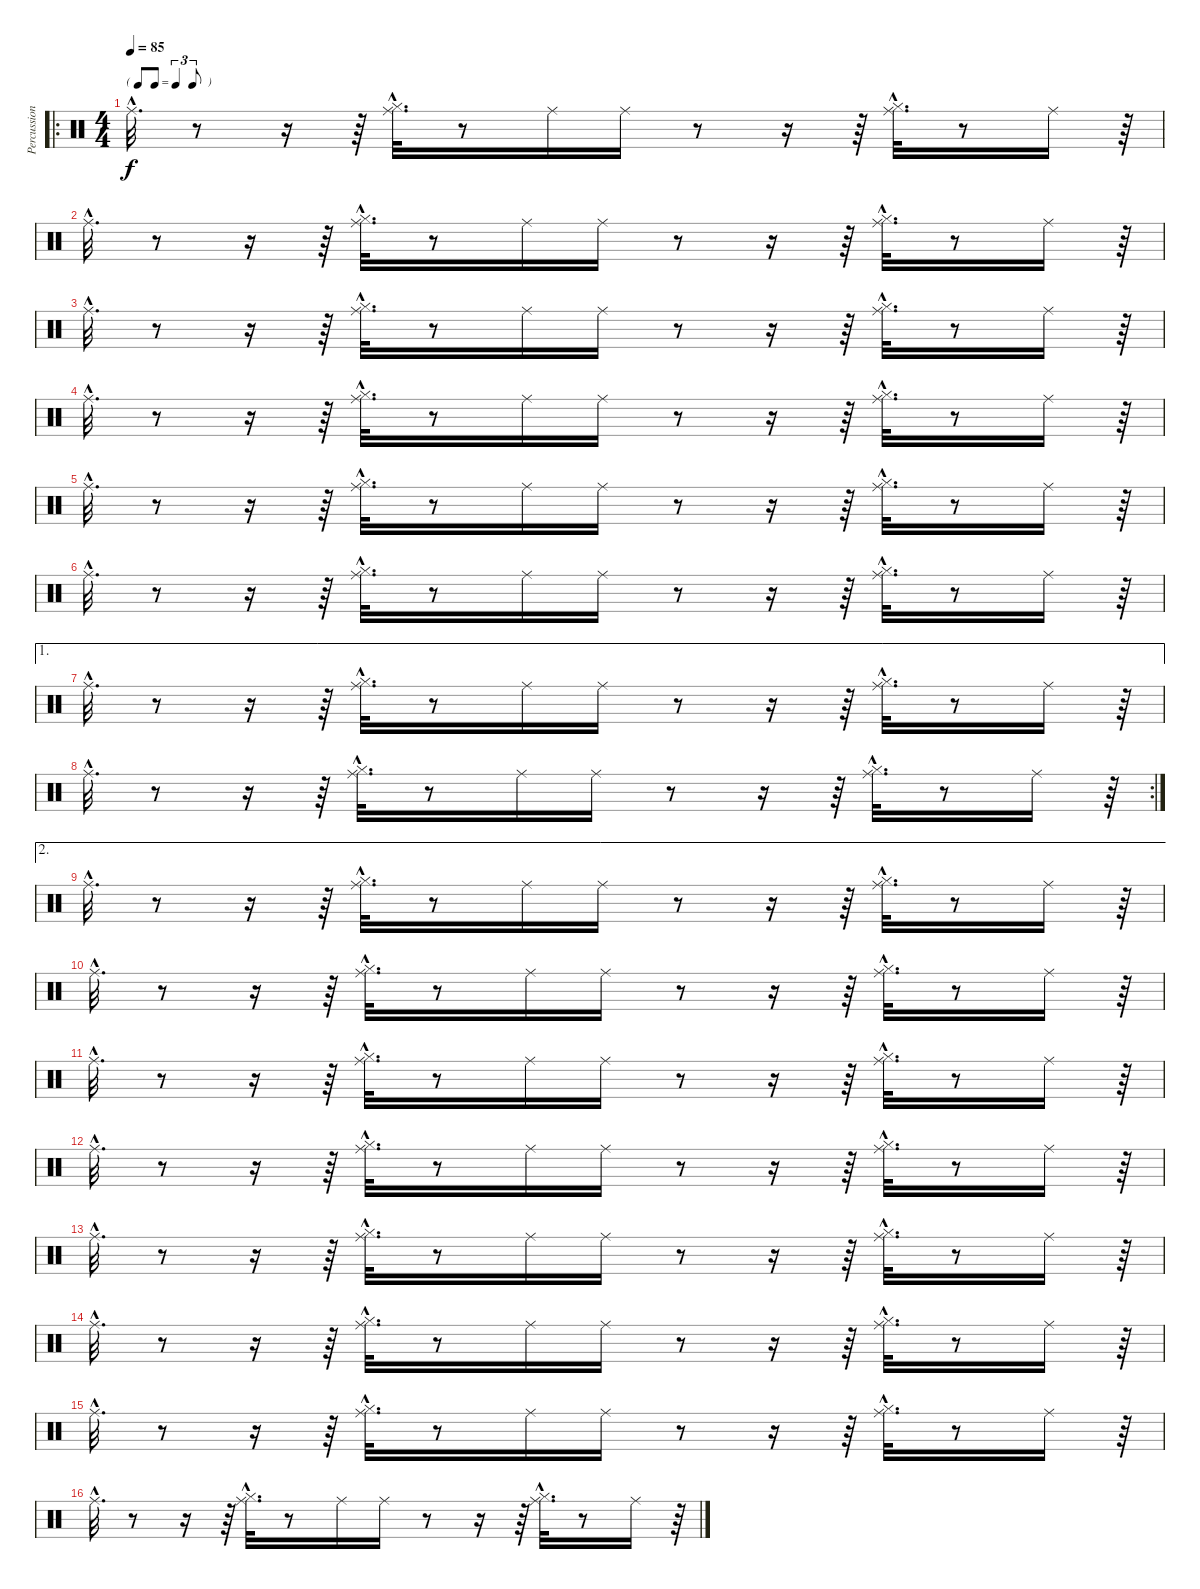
\track ("Percussions" "Percussion") {instrument percussion}
\staff {score}
\articulation defaults
\ro
\ts (4 4)
\tf triplet8th
\tempo 85
\clef neutral
\ks c "Ride (middle)"{hac}.32{d dy f}
r.8 r.16 r.64 ("Hi-Hat (closed)"{hac} "Ride (middle)"{hac}).32{d} r.8 "Ride (middle)".16 "Ride (middle)".16 r.8 r.16 r.64 ("Hi-Hat (closed)"{hac} "Ride (middle)"{hac}).32{d} r.8 "Ride (middle)".16 r.64 |
"Ride (middle)"{hac}.32{d} r.8 r.16 r.64 ("Hi-Hat (closed)"{hac} "Ride (middle)"{hac}).32{d} r.8 "Ride (middle)".16 "Ride (middle)".16 r.8 r.16 r.64 ("Hi-Hat (closed)"{hac} "Ride (middle)"{hac}).32{d} r.8 "Ride (middle)".16 r.64 |
"Ride (middle)"{hac}.32{d} r.8 r.16 r.64 ("Hi-Hat (closed)"{hac} "Ride (middle)"{hac}).32{d} r.8 "Ride (middle)".16 "Ride (middle)".16 r.8 r.16 r.64 ("Hi-Hat (closed)"{hac} "Ride (middle)"{hac}).32{d} r.8 "Ride (middle)".16 r.64 |
"Ride (middle)"{hac}.32{d} r.8 r.16 r.64 ("Hi-Hat (closed)"{hac} "Ride (middle)"{hac}).32{d} r.8 "Ride (middle)".16 "Ride (middle)".16 r.8 r.16 r.64 ("Hi-Hat (closed)"{hac} "Ride (middle)"{hac}).32{d} r.8 "Ride (middle)".16 r.64 |
"Ride (middle)"{hac}.32{d} r.8 r.16 r.64 ("Hi-Hat (closed)"{hac} "Ride (middle)"{hac}).32{d} r.8 "Ride (middle)".16 "Ride (middle)".16 r.8 r.16 r.64 ("Hi-Hat (closed)"{hac} "Ride (middle)"{hac}).32{d} r.8 "Ride (middle)".16 r.64 |
"Ride (middle)"{hac}.32{d} r.8 r.16 r.64 ("Hi-Hat (closed)"{hac} "Ride (middle)"{hac}).32{d} r.8 "Ride (middle)".16 "Ride (middle)".16 r.8 r.16 r.64 ("Hi-Hat (closed)"{hac} "Ride (middle)"{hac}).32{d} r.8 "Ride (middle)".16 r.64 |
\ae 1 "Ride (middle)"{hac}.32{d}
r.8 r.16 r.64 ("Hi-Hat (closed)"{hac} "Ride (middle)"{hac}).32{d} r.8 "Ride (middle)".16 "Ride (middle)".16 r.8 r.16 r.64 ("Hi-Hat (closed)"{hac} "Ride (middle)"{hac}).32{d} r.8 "Ride (middle)".16 r.64 |
\rc 2 "Ride (middle)"{hac}.32{d}
r.8 r.16 r.64 ("Hi-Hat (closed)"{hac} "Ride (middle)"{hac}).32{d} r.8 "Ride (middle)".16 "Ride (middle)".16 r.8 r.16 r.64 ("Hi-Hat (closed)"{hac} "Ride (middle)"{hac}).32{d} r.8 "Ride (middle)".16 r.64 |
\ae 2 "Ride (middle)"{hac}.32{d}
r.8 r.16 r.64 ("Hi-Hat (closed)"{hac} "Ride (middle)"{hac}).32{d} r.8 "Ride (middle)".16 "Ride (middle)".16 r.8 r.16 r.64 ("Hi-Hat (closed)"{hac} "Ride (middle)"{hac}).32{d} r.8 "Ride (middle)".16 r.64 |
"Ride (middle)"{hac}.32{d} r.8 r.16 r.64 ("Hi-Hat (closed)"{hac} "Ride (middle)"{hac}).32{d} r.8 "Ride (middle)".16 "Ride (middle)".16 r.8 r.16 r.64 ("Hi-Hat (closed)"{hac} "Ride (middle)"{hac}).32{d} r.8 "Ride (middle)".16 r.64 |
"Ride (middle)"{hac}.32{d} r.8 r.16 r.64 ("Hi-Hat (closed)"{hac} "Ride (middle)"{hac}).32{d} r.8 "Ride (middle)".16 "Ride (middle)".16 r.8 r.16 r.64 ("Hi-Hat (closed)"{hac} "Ride (middle)"{hac}).32{d} r.8 "Ride (middle)".16 r.64 |
"Ride (middle)"{hac}.32{d} r.8 r.16 r.64 ("Hi-Hat (closed)"{hac} "Ride (middle)"{hac}).32{d} r.8 "Ride (middle)".16 "Ride (middle)".16 r.8 r.16 r.64 ("Hi-Hat (closed)"{hac} "Ride (middle)"{hac}).32{d} r.8 "Ride (middle)".16 r.64 |
"Ride (middle)"{hac}.32{d} r.8 r.16 r.64 ("Hi-Hat (closed)"{hac} "Ride (middle)"{hac}).32{d} r.8 "Ride (middle)".16 "Ride (middle)".16 r.8 r.16 r.64 ("Hi-Hat (closed)"{hac} "Ride (middle)"{hac}).32{d} r.8 "Ride (middle)".16 r.64 |
"Ride (middle)"{hac}.32{d} r.8 r.16 r.64 ("Hi-Hat (closed)"{hac} "Ride (middle)"{hac}).32{d} r.8 "Ride (middle)".16 "Ride (middle)".16 r.8 r.16 r.64 ("Hi-Hat (closed)"{hac} "Ride (middle)"{hac}).32{d} r.8 "Ride (middle)".16 r.64 |
"Ride (middle)"{hac}.32{d} r.8 r.16 r.64 ("Hi-Hat (closed)"{hac} "Ride (middle)"{hac}).32{d} r.8 "Ride (middle)".16 "Ride (middle)".16 r.8 r.16 r.64 ("Hi-Hat (closed)"{hac} "Ride (middle)"{hac}).32{d} r.8 "Ride (middle)".16 r.64 |
"Ride (middle)"{hac}.32{d} r.8 r.16 r.64 ("Hi-Hat (closed)"{hac} "Ride (middle)"{hac}).32{d} r.8 "Ride (middle)".16 "Ride (middle)".16 r.8 r.16 r.64 ("Hi-Hat (closed)"{hac} "Ride (middle)"{hac}).32{d} r.8 "Ride (middle)".16 r.64
